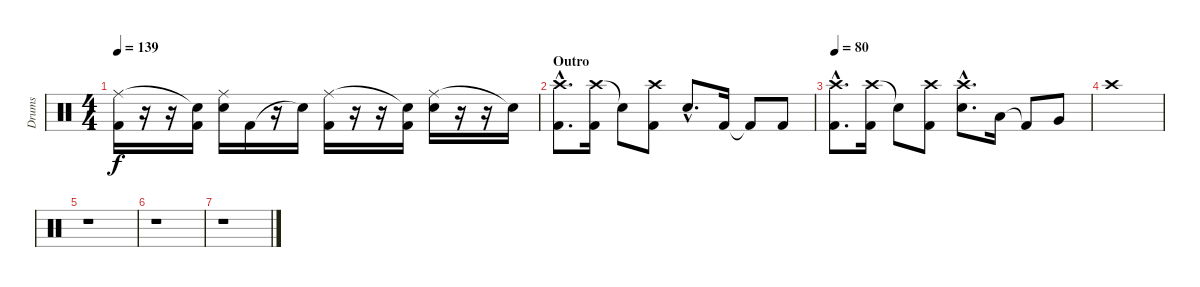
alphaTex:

\track ("Drums" "Drums") {instrument percussion}
\staff {score}
\articulation defaults
\ts (4 4)
\tempo 139
\clef neutral
\ks c
("Ride (middle)" "Kick (hit) 2").16{dy f} r.16 r.16 ("Snare (hit)"{t} "Kick (hit) 2").16 ("Ride (middle)" "Snare (hit) 2").16 "Kick (hit) 2".16 r.16 "Snare (hit)"{t}.16 ("Ride (middle)" "Kick (hit) 2").16 r.16 r.16 ("Snare (hit)"{t} "Kick (hit) 2").16 ("Ride (middle)" "Snare (hit) 2").16 r.16 r.16 "Snare (hit)"{t}.16 |
\section ("" "Outro")
("Crash high (hit)"{hac} "Kick (hit) 2"{hac}).8{d} ("Crash high (hit)" "Kick (hit) 2").16 "Snare (hit)"{t}.8 ("Crash high (hit)" "Kick (hit) 2").8 "Snare (hit) 2"{hac}.8{d} "Kick (hit) 2".16 "Kick (hit) 2"{t}.8 "Kick (hit) 2".8 |
\tempo 80
("Crash high (hit)"{hac} "Kick (hit) 2"{hac}).8{d} ("Crash high (hit)" "Kick (hit) 2").16 "Snare (hit)"{t}.8 ("Crash high (hit)" "Kick (hit) 2").8 ("Crash high (hit)"{hac} "Snare (hit) 2"{hac}).8{d} "Low Tom (hit)".16 "Kick (hit) 2"{t}.8 "Very Low Tom (hit)".8 |
"Crash high (hit)".1 |
r.1 |
r.1 |
r.1
